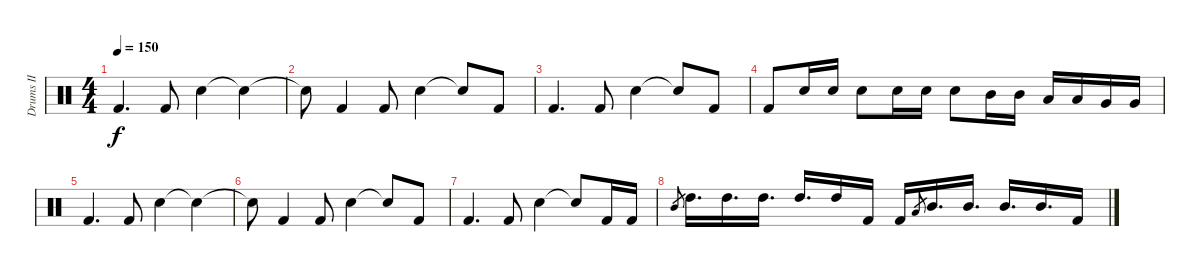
\track ("Drums II" "Drums II") {instrument percussion}
\staff {score}
\articulation defaults
\ts (4 4)
\tempo 150
\clef neutral
\ks c "Kick (hit) 2".4{d dy f} "Kick (hit) 2".8 "Electric Snare (hit)".4 "Snare (hit)"{t}.4
|
"Snare (hit)"{t}.8 "Kick (hit) 2".4 "Kick (hit) 2".8 "Electric Snare (hit)".4 "Snare (hit)"{t}.8 "Kick (hit) 2".8 |
"Kick (hit) 2".4{d} "Kick (hit) 2".8 "Electric Snare (hit)".4 "Snare (hit)"{t}.8 "Kick (hit) 2".8 |
"Kick (hit) 2".8 "Electric Snare (hit)".16 "Electric Snare (hit)".16 "Electric Snare (hit)".8 "Electric Snare (hit)".16 "Electric Snare (hit)".16 "Electric Snare (hit)".8 "Mid Tom (hit)".16 "Mid Tom (hit)".16 "Low Tom (hit)".16 "Low Tom (hit)".16 "Very Low Tom (hit)".16 "Very Low Tom (hit)".16 |
"Kick (hit) 2".4{d} "Kick (hit) 2".8 "Electric Snare (hit)".4 "Snare (hit)"{t}.4 |
"Snare (hit)"{t}.8 "Kick (hit) 2".4 "Kick (hit) 2".8 "Electric Snare (hit)".4 "Snare (hit)"{t}.8 "Kick (hit) 2".8 |
"Kick (hit) 2".4{d} "Kick (hit) 2".8 "Electric Snare (hit)".4 "Snare (hit)"{t}.8 "Kick (hit) 2".16 "Kick (hit) 2".16 |
"Mid Tom (hit)".8{gr} "High Tom (hit)".16{d} "High Tom (hit)".16{d} "High Tom (hit)".16{d} "High Tom (hit)".16{d} "High Tom (hit)".16 "Kick (hit) 2".16 "Kick (hit) 2".16 "Low Tom (hit)".8{gr} "Mid Tom (hit)".16{d} "Mid Tom (hit)".16{d} "Mid Tom (hit)".16{d} "Mid Tom (hit)".16{d} "Kick (hit) 2".16
